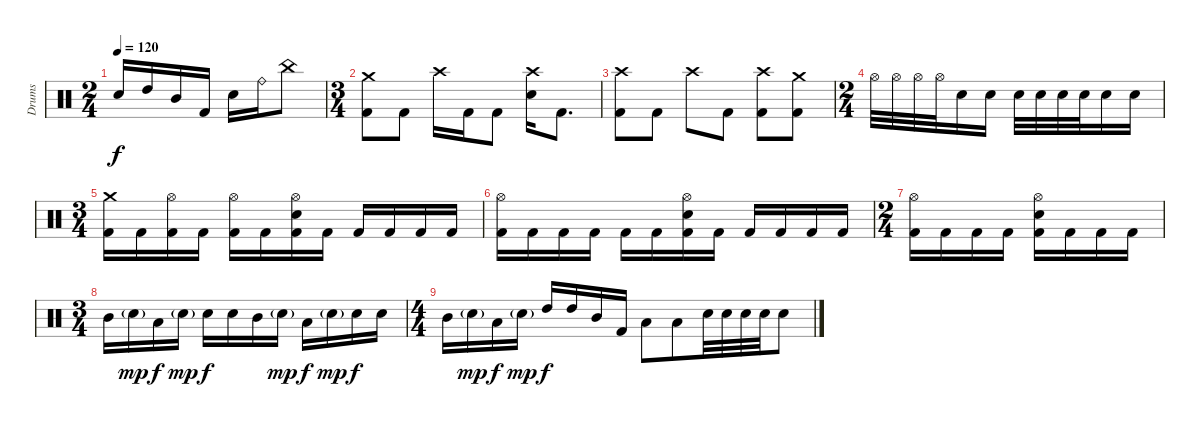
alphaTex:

\track ("Drums" "Drums") {instrument percussion}
\staff {score}
\articulation defaults
\ts (2 4)
\tempo 120
\clef neutral
\ks c "Electric Snare (hit)".16{dy f} "High Tom (hit)".16 "Mid Tom (hit)".16 "Kick (hit) 2".16 "Electric Snare (hit)".16 "Ride (bell)".16 "China (hit)".8
|
\ts (3 4)
("Crash medium (hit)" "Kick (hit) 2").8 "Kick (hit) 2".8 "Crash high (hit)".16 "Kick (hit) 2".16 "Kick (hit) 2".8 ("Crash high (hit)" "Electric Snare (hit)").16 "Kick (hit) 2".8{d} |
("Crash high (hit)" "Kick (hit) 2").8 "Kick (hit) 2".8 "Crash high (hit)".8 "Kick (hit) 2".8 ("Kick (hit) 2" "Crash high (hit)").8 ("Kick (hit) 2" "Crash medium (hit)").8 |
\ts (2 4)
"Hi-Hat (open)".32 "Hi-Hat (open)".32 "Hi-Hat (open)".32 "Hi-Hat (open)".32 "Electric Snare (hit)".16 "Electric Snare (hit)".16 "Electric Snare (hit)".32 "Electric Snare (hit)".32 "Electric Snare (hit)".32 "Electric Snare (hit)".32 "Electric Snare (hit)".16 "Electric Snare (hit)".16 |
\ts (3 4)
("Kick (hit) 2" "Crash medium (hit)").16 "Kick (hit) 2".16 ("Kick (hit) 2" "Hi-Hat (open)").16 "Kick (hit) 2".16 ("Kick (hit) 2" "Hi-Hat (open)").16 "Kick (hit) 2".16 ("Kick (hit) 2" "Hi-Hat (open)" "Electric Snare (hit)").16 "Kick (hit) 2".16 "Kick (hit) 2".16 "Kick (hit) 2".16 "Kick (hit) 2".16 "Kick (hit) 2".16 |
("Kick (hit) 2" "Hi-Hat (open)").16 "Kick (hit) 2".16 "Kick (hit) 2".16 "Kick (hit) 2".16 "Kick (hit) 2".16 "Kick (hit) 2".16 ("Kick (hit) 2" "Hi-Hat (open)" "Electric Snare (hit)").16 "Kick (hit) 2".16 "Kick (hit) 2".16 "Kick (hit) 2".16 "Kick (hit) 2".16 "Kick (hit) 2".16 |
\ts (2 4)
("Kick (hit) 2" "Hi-Hat (open)").16 "Kick (hit) 2".16 "Kick (hit) 2".16 "Kick (hit) 2".16 ("Kick (hit) 2" "Hi-Hat (open)" "Electric Snare (hit)").16 "Kick (hit) 2".16 "Kick (hit) 2".16 "Kick (hit) 2".16 |
\ts (3 4)
"Mid Tom (hit)".16 "Electric Snare (hit)"{g}.16{dy mp} "Low Tom (hit)".16{dy f} "Electric Snare (hit)"{g}.16{dy mp} "Electric Snare (hit)".16{dy f} "Electric Snare (hit)".16 "Mid Tom (hit)".16 "Electric Snare (hit)"{g}.16{dy mp} "Low Tom (hit)".16{dy f} "Electric Snare (hit)"{g}.16{dy mp} "Electric Snare (hit)".16{dy f} "Electric Snare (hit)".16 |
\ts (4 4)
"Mid Tom (hit)".16 "Electric Snare (hit)"{g}.16{dy mp beam merge} "Low Tom (hit)".16{dy f} "Electric Snare (hit)"{g}.16{dy mp} "High Tom (hit)".16{dy f} "High Tom (hit)".16{beam merge} "Mid Tom (hit)".16 "Kick (hit) 2".16 "Low Tom (hit)".8{beam merge} "Low Tom (hit)".8{beam merge} "Electric Snare (hit)".32 "Electric Snare (hit)".32 "Electric Snare (hit)".32 "Electric Snare (hit)".32 "Electric Snare (hit)".8
